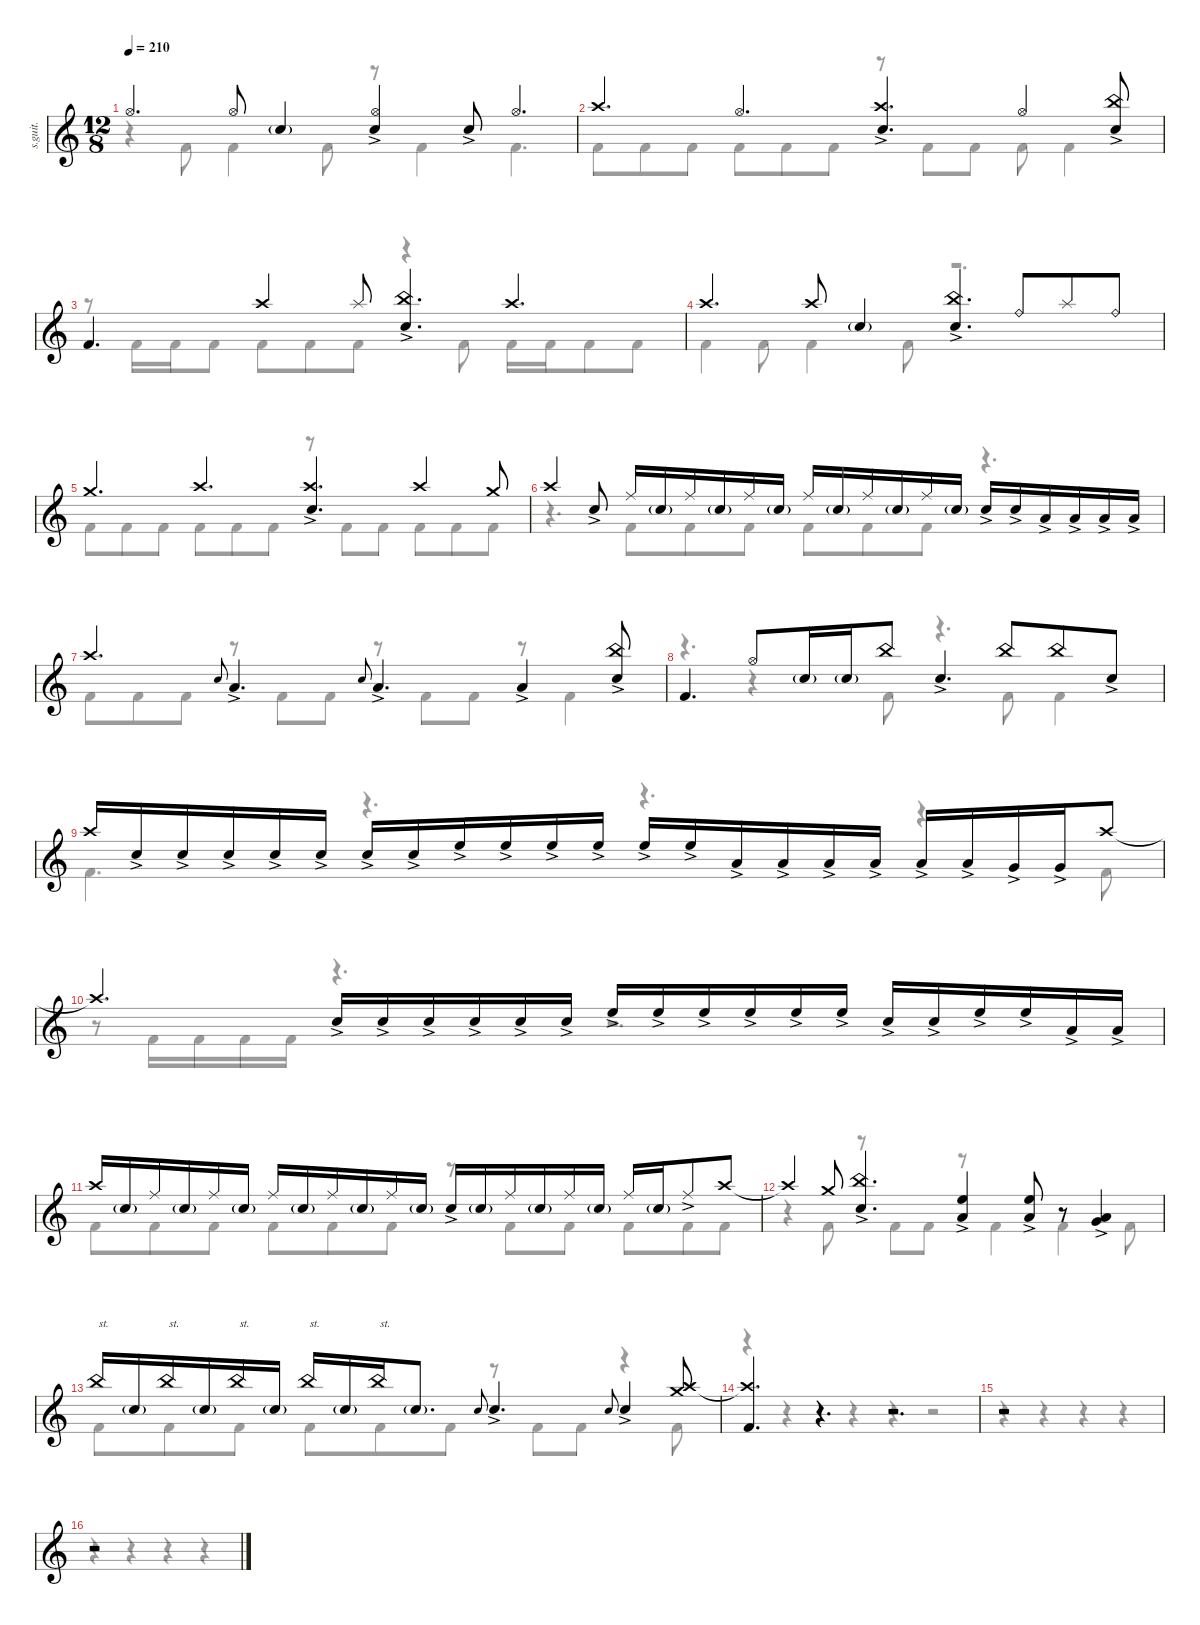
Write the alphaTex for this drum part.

\defaultSystemsLayout 4
\hideDynamics
\bracketExtendMode nobrackets
\track ("Percussion" "s.guit.") {instrument percussion}
\staff {score}
\articulation defaults
\voice
\ts (12 8)
\tempo 210
\clef g2
\ks c "Hi-Hat (open)".4{d lyrics (0 "") lyrics (1 "") lyrics (2 "") lyrics (3 "") lyrics (4 "") dy f} "Hi-Hat (open)".8{lyrics (0 "") lyrics (1 "") lyrics (2 "") lyrics (3 "") lyrics (4 "")} "Snare (hit) 2"{g}.4{lyrics (0 "") lyrics (1 "") lyrics (2 "") lyrics (3 "") lyrics (4 "") dy ff}
("Hi-Hat (open)" "Snare (hit) 2"{ac}).4{lyrics (0 "") lyrics (1 "") lyrics (2 "") lyrics (3 "") lyrics (4 "") dy f} "Snare (hit) 2"{ac}.8{lyrics (0 "") lyrics (1 "") lyrics (2 "") lyrics (3 "") lyrics (4 "") dy mf} "Hi-Hat (open)".4{d lyrics (0 "") lyrics (1 "") lyrics (2 "") lyrics (3 "") lyrics (4 "") dy f} |
"Crash high (hit)".4{d lyrics (0 "") lyrics (1 "") lyrics (2 "") lyrics (3 "") lyrics (4 "")} "Hi-Hat (open)".4{d lyrics (0 "") lyrics (1 "") lyrics (2 "") lyrics (3 "") lyrics (4 "")} ("Snare (hit) 2"{ac} "Crash high (hit)").4{d lyrics (0 "") lyrics (1 "") lyrics (2 "") lyrics (3 "") lyrics (4 "")} "Hi-Hat (open)".4{lyrics (0 "") lyrics (1 "") lyrics (2 "") lyrics (3 "") lyrics (4 "")} ("Snare (hit) 2"{ac} "China (hit)").8{lyrics (0 "") lyrics (1 "") lyrics (2 "") lyrics (3 "") lyrics (4 "")} |
"Kick (hit) 2".4{d lyrics (0 "") lyrics (1 "") lyrics (2 "") lyrics (3 "") lyrics (4 "")} "Crash high (hit)".4{lyrics (0 "") lyrics (1 "") lyrics (2 "") lyrics (3 "") lyrics (4 "")} "Splash (hit)".8{lyrics (0 "") lyrics (1 "") lyrics (2 "") lyrics (3 "") lyrics (4 "")} ("China (hit)" "Snare (hit) 2"{ac}).4{d lyrics (0 "") lyrics (1 "") lyrics (2 "") lyrics (3 "") lyrics (4 "")} "Crash high (hit)".4{d lyrics (0 "") lyrics (1 "") lyrics (2 "") lyrics (3 "") lyrics (4 "")} |
"Crash high (hit)".4{d lyrics (0 "") lyrics (1 "") lyrics (2 "") lyrics (3 "") lyrics (4 "")} "Crash high (hit)".8{lyrics (0 "") lyrics (1 "") lyrics (2 "") lyrics (3 "") lyrics (4 "")} "Snare (hit) 2"{g}.4{lyrics (0 "") lyrics (1 "") lyrics (2 "") lyrics (3 "") lyrics (4 "") dy ff} ("Snare (hit) 2"{ac} "China (hit)").4{d lyrics (0 "") lyrics (1 "") lyrics (2 "") lyrics (3 "") lyrics (4 "") dy f} "Ride (bell)".8{lyrics (0 "") lyrics (1 "") lyrics (2 "") lyrics (3 "") lyrics (4 "")} "Splash (hit)".8{lyrics (0 "") lyrics (1 "") lyrics (2 "") lyrics (3 "") lyrics (4 "")} "Ride (bell)".8{lyrics (0 "") lyrics (1 "") lyrics (2 "") lyrics (3 "") lyrics (4 "")} |
"Crash medium (hit)".4{d lyrics (0 "") lyrics (1 "") lyrics (2 "") lyrics (3 "") lyrics (4 "")} "Crash high (hit)".4{d lyrics (0 "") lyrics (1 "") lyrics (2 "") lyrics (3 "") lyrics (4 "")} ("Crash high (hit)" "Snare (hit) 2"{ac}).4{d lyrics (0 "") lyrics (1 "") lyrics (2 "") lyrics (3 "") lyrics (4 "")} "Crash high (hit)".4{lyrics (0 "") lyrics (1 "") lyrics (2 "") lyrics (3 "") lyrics (4 "")} "Crash medium (hit)".8{lyrics (0 "") lyrics (1 "") lyrics (2 "") lyrics (3 "") lyrics (4 "")} |
"Crash high (hit)".4{lyrics (0 "") lyrics (1 "") lyrics (2 "") lyrics (3 "") lyrics (4 "")} "Snare (hit) 2"{ac}.8{lyrics (0 "") lyrics (1 "") lyrics (2 "") lyrics (3 "") lyrics (4 "") dy mf} "Ride (middle)".16{lyrics (0 "") lyrics (1 "") lyrics (2 "") lyrics (3 "") lyrics (4 "") dy f} "Snare (hit) 2"{g}.16{lyrics (0 "") lyrics (1 "") lyrics (2 "") lyrics (3 "") lyrics (4 "") dy ff} "Ride (middle)".16{lyrics (0 "") lyrics (1 "") lyrics (2 "") lyrics (3 "") lyrics (4 "") dy f} "Snare (hit) 2"{g}.16{lyrics (0 "") lyrics (1 "") lyrics (2 "") lyrics (3 "") lyrics (4 "") dy ff} "Ride (middle)".16{lyrics (0 "") lyrics (1 "") lyrics (2 "") lyrics (3 "") lyrics (4 "") dy f} "Snare (hit) 2"{g}.16{lyrics (0 "") lyrics (1 "") lyrics (2 "") lyrics (3 "") lyrics (4 "") dy ff} "Ride (middle)".16{lyrics (0 "") lyrics (1 "") lyrics (2 "") lyrics (3 "") lyrics (4 "") dy f} "Snare (hit) 2"{g}.16{lyrics (0 "") lyrics (1 "") lyrics (2 "") lyrics (3 "") lyrics (4 "") dy ff} "Ride (middle)".16{lyrics (0 "") lyrics (1 "") lyrics (2 "") lyrics (3 "") lyrics (4 "") dy f} "Snare (hit) 2"{g}.16{lyrics (0 "") lyrics (1 "") lyrics (2 "") lyrics (3 "") lyrics (4 "") dy ff} "Ride (middle)".16{lyrics (0 "") lyrics (1 "") lyrics (2 "") lyrics (3 "") lyrics (4 "") dy f} "Snare (hit) 2"{g}.16{lyrics (0 "") lyrics (1 "") lyrics (2 "") lyrics (3 "") lyrics (4 "") dy ff} "Snare (hit) 2"{ac}.16{lyrics (0 "") lyrics (1 "") lyrics (2 "") lyrics (3 "") lyrics (4 "") dy mf} "Snare (hit) 2"{ac}.16{lyrics (0 "") lyrics (1 "") lyrics (2 "") lyrics (3 "") lyrics (4 "")} "Low Tom (hit)"{ac}.16{lyrics (0 "") lyrics (1 "") lyrics (2 "") lyrics (3 "") lyrics (4 "")} "Low Tom (hit)"{ac}.16{lyrics (0 "") lyrics (1 "") lyrics (2 "") lyrics (3 "") lyrics (4 "")} "Low Tom (hit)"{ac}.16{lyrics (0 "") lyrics (1 "") lyrics (2 "") lyrics (3 "") lyrics (4 "")} "Low Tom (hit)"{ac}.16{lyrics (0 "") lyrics (1 "") lyrics (2 "") lyrics (3 "") lyrics (4 "")} |
"Crash high (hit)".4{d lyrics (0 "") lyrics (1 "") lyrics (2 "") lyrics (3 "") lyrics (4 "") dy f} "Snare (hit) 2".8{lyrics (0 "") lyrics (1 "") lyrics (2 "") lyrics (3 "") lyrics (4 "") gr onbeat dy mf} "Low Tom (hit)"{ac}.4{d lyrics (0 "") lyrics (1 "") lyrics (2 "") lyrics (3 "") lyrics (4 "")} "Snare (hit) 2".8{lyrics (0 "") lyrics (1 "") lyrics (2 "") lyrics (3 "") lyrics (4 "") gr onbeat} "Low Tom (hit)"{ac}.4{d lyrics (0 "") lyrics (1 "") lyrics (2 "") lyrics (3 "") lyrics (4 "")} "Low Tom (hit)"{ac}.4{lyrics (0 "") lyrics (1 "") lyrics (2 "") lyrics (3 "") lyrics (4 "")} ("Snare (hit) 2"{ac} "China (hit)").8{lyrics (0 "") lyrics (1 "") lyrics (2 "") lyrics (3 "") lyrics (4 "") dy f} |
"Kick (hit) 2".4{d lyrics (0 "") lyrics (1 "") lyrics (2 "") lyrics (3 "") lyrics (4 "")} "Hi-Hat (open)".8{lyrics (0 "") lyrics (1 "") lyrics (2 "") lyrics (3 "") lyrics (4 "")} "Snare (hit) 2"{g}.16{lyrics (0 "") lyrics (1 "") lyrics (2 "") lyrics (3 "") lyrics (4 "") dy ff} "Snare (hit) 2"{g}.16{lyrics (0 "") lyrics (1 "") lyrics (2 "") lyrics (3 "") lyrics (4 "")} "China (hit)".8{lyrics (0 "") lyrics (1 "") lyrics (2 "") lyrics (3 "") lyrics (4 "") dy f} "Snare (hit) 2"{ac}.4{d lyrics (0 "") lyrics (1 "") lyrics (2 "") lyrics (3 "") lyrics (4 "") dy mf} "China (hit)".8{lyrics (0 "") lyrics (1 "") lyrics (2 "") lyrics (3 "") lyrics (4 "") dy f} "China (hit)".8{lyrics (0 "") lyrics (1 "") lyrics (2 "") lyrics (3 "") lyrics (4 "")} "Snare (hit) 2"{ac}.8{lyrics (0 "") lyrics (1 "") lyrics (2 "") lyrics (3 "") lyrics (4 "") dy mf} |
"Crash high (hit)".16{lyrics (0 "") lyrics (1 "") lyrics (2 "") lyrics (3 "") lyrics (4 "") dy f} "Snare (hit) 2"{ac}.16{lyrics (0 "") lyrics (1 "") lyrics (2 "") lyrics (3 "") lyrics (4 "") dy mf} "Snare (hit) 2"{ac}.16{lyrics (0 "") lyrics (1 "") lyrics (2 "") lyrics (3 "") lyrics (4 "")} "Snare (hit) 2"{ac}.16{lyrics (0 "") lyrics (1 "") lyrics (2 "") lyrics (3 "") lyrics (4 "")} "Snare (hit) 2"{ac}.16{lyrics (0 "") lyrics (1 "") lyrics (2 "") lyrics (3 "") lyrics (4 "")} "Snare (hit) 2"{ac}.16{lyrics (0 "") lyrics (1 "") lyrics (2 "") lyrics (3 "") lyrics (4 "")} "Snare (hit) 2"{ac}.16{lyrics (0 "") lyrics (1 "") lyrics (2 "") lyrics (3 "") lyrics (4 "")} "Snare (hit) 2"{ac}.16{lyrics (0 "") lyrics (1 "") lyrics (2 "") lyrics (3 "") lyrics (4 "")} "High Floor Tom (hit)"{ac}.16{lyrics (0 "") lyrics (1 "") lyrics (2 "") lyrics (3 "") lyrics (4 "")} "High Floor Tom (hit)"{ac}.16{lyrics (0 "") lyrics (1 "") lyrics (2 "") lyrics (3 "") lyrics (4 "")} "High Floor Tom (hit)"{ac}.16{lyrics (0 "") lyrics (1 "") lyrics (2 "") lyrics (3 "") lyrics (4 "")} "High Floor Tom (hit)"{ac}.16{lyrics (0 "") lyrics (1 "") lyrics (2 "") lyrics (3 "") lyrics (4 "")} "High Floor Tom (hit)"{ac}.16{lyrics (0 "") lyrics (1 "") lyrics (2 "") lyrics (3 "") lyrics (4 "")} "High Floor Tom (hit)"{ac}.16{lyrics (0 "") lyrics (1 "") lyrics (2 "") lyrics (3 "") lyrics (4 "")} "Low Tom (hit)"{ac}.16{lyrics (0 "") lyrics (1 "") lyrics (2 "") lyrics (3 "") lyrics (4 "")} "Low Tom (hit)"{ac}.16{lyrics (0 "") lyrics (1 "") lyrics (2 "") lyrics (3 "") lyrics (4 "")} "Low Tom (hit)"{ac}.16{lyrics (0 "") lyrics (1 "") lyrics (2 "") lyrics (3 "") lyrics (4 "")} "Low Tom (hit)"{ac}.16{lyrics (0 "") lyrics (1 "") lyrics (2 "") lyrics (3 "") lyrics (4 "")} "Low Tom (hit)"{ac}.16{lyrics (0 "") lyrics (1 "") lyrics (2 "") lyrics (3 "") lyrics (4 "")} "Low Tom (hit)"{ac}.16{lyrics (0 "") lyrics (1 "") lyrics (2 "") lyrics (3 "") lyrics (4 "")} "Very Low Tom (hit)"{ac}.16{lyrics (0 "") lyrics (1 "") lyrics (2 "") lyrics (3 "") lyrics (4 "")} "Very Low Tom (hit)"{ac}.16{lyrics (0 "") lyrics (1 "") lyrics (2 "") lyrics (3 "") lyrics (4 "")} "Crash high (hit)".8{lyrics (0 "") lyrics (1 "") lyrics (2 "") lyrics (3 "") lyrics (4 "") dy f} |
"Crash high (hit)"{t}.4{d lyrics (0 "") lyrics (1 "") lyrics (2 "") lyrics (3 "") lyrics (4 "")} "Snare (hit) 2"{ac}.16{lyrics (0 "") lyrics (1 "") lyrics (2 "") lyrics (3 "") lyrics (4 "") dy mf} "Snare (hit) 2"{ac}.16{lyrics (0 "") lyrics (1 "") lyrics (2 "") lyrics (3 "") lyrics (4 "")} "Snare (hit) 2"{ac}.16{lyrics (0 "") lyrics (1 "") lyrics (2 "") lyrics (3 "") lyrics (4 "")} "Snare (hit) 2"{ac}.16{lyrics (0 "") lyrics (1 "") lyrics (2 "") lyrics (3 "") lyrics (4 "")} "Snare (hit) 2"{ac}.16{lyrics (0 "") lyrics (1 "") lyrics (2 "") lyrics (3 "") lyrics (4 "")} "Snare (hit) 2"{ac}.16{lyrics (0 "") lyrics (1 "") lyrics (2 "") lyrics (3 "") lyrics (4 "")} "High Floor Tom (hit)"{ac}.16{lyrics (0 "") lyrics (1 "") lyrics (2 "") lyrics (3 "") lyrics (4 "")} "High Floor Tom (hit)"{ac}.16{lyrics (0 "") lyrics (1 "") lyrics (2 "") lyrics (3 "") lyrics (4 "")} "High Floor Tom (hit)"{ac}.16{lyrics (0 "") lyrics (1 "") lyrics (2 "") lyrics (3 "") lyrics (4 "")} "High Floor Tom (hit)"{ac}.16{lyrics (0 "") lyrics (1 "") lyrics (2 "") lyrics (3 "") lyrics (4 "")} "High Floor Tom (hit)"{ac}.16{lyrics (0 "") lyrics (1 "") lyrics (2 "") lyrics (3 "") lyrics (4 "")} "High Floor Tom (hit)"{ac}.16{lyrics (0 "") lyrics (1 "") lyrics (2 "") lyrics (3 "") lyrics (4 "")} "Snare (hit) 2"{ac}.16{lyrics (0 "") lyrics (1 "") lyrics (2 "") lyrics (3 "") lyrics (4 "")} "Snare (hit) 2"{ac}.16{lyrics (0 "") lyrics (1 "") lyrics (2 "") lyrics (3 "") lyrics (4 "")} "High Floor Tom (hit)"{ac}.16{lyrics (0 "") lyrics (1 "") lyrics (2 "") lyrics (3 "") lyrics (4 "")} "High Floor Tom (hit)"{ac}.16{lyrics (0 "") lyrics (1 "") lyrics (2 "") lyrics (3 "") lyrics (4 "")} "Low Tom (hit)"{ac}.16{lyrics (0 "") lyrics (1 "") lyrics (2 "") lyrics (3 "") lyrics (4 "")} "Low Tom (hit)"{ac}.16{lyrics (0 "") lyrics (1 "") lyrics (2 "") lyrics (3 "") lyrics (4 "")} |
"Crash high (hit)".16{lyrics (0 "") lyrics (1 "") lyrics (2 "") lyrics (3 "") lyrics (4 "") dy f} "Snare (hit) 2"{g}.16{lyrics (0 "") lyrics (1 "") lyrics (2 "") lyrics (3 "") lyrics (4 "") dy ff} "Ride (middle)".16{lyrics (0 "") lyrics (1 "") lyrics (2 "") lyrics (3 "") lyrics (4 "") dy f} "Snare (hit) 2"{g}.16{lyrics (0 "") lyrics (1 "") lyrics (2 "") lyrics (3 "") lyrics (4 "") dy ff} "Ride (middle)".16{lyrics (0 "") lyrics (1 "") lyrics (2 "") lyrics (3 "") lyrics (4 "") dy f} "Snare (hit) 2"{g}.16{lyrics (0 "") lyrics (1 "") lyrics (2 "") lyrics (3 "") lyrics (4 "") dy ff} "Ride (middle)".16{lyrics (0 "") lyrics (1 "") lyrics (2 "") lyrics (3 "") lyrics (4 "") dy f} "Snare (hit) 2"{g}.16{lyrics (0 "") lyrics (1 "") lyrics (2 "") lyrics (3 "") lyrics (4 "") dy ff} "Ride (middle)".16{lyrics (0 "") lyrics (1 "") lyrics (2 "") lyrics (3 "") lyrics (4 "") dy f} "Snare (hit) 2"{g}.16{lyrics (0 "") lyrics (1 "") lyrics (2 "") lyrics (3 "") lyrics (4 "") dy ff} "Ride (middle)".16{lyrics (0 "") lyrics (1 "") lyrics (2 "") lyrics (3 "") lyrics (4 "") dy f} "Snare (hit) 2"{g}.16{lyrics (0 "") lyrics (1 "") lyrics (2 "") lyrics (3 "") lyrics (4 "") dy ff} "Snare (hit) 2"{ac}.16{lyrics (0 "") lyrics (1 "") lyrics (2 "") lyrics (3 "") lyrics (4 "") dy mf} "Snare (hit) 2"{g}.16{lyrics (0 "") lyrics (1 "") lyrics (2 "") lyrics (3 "") lyrics (4 "") dy ff} "Ride (middle)".16{lyrics (0 "") lyrics (1 "") lyrics (2 "") lyrics (3 "") lyrics (4 "") dy f} "Snare (hit) 2"{g}.16{lyrics (0 "") lyrics (1 "") lyrics (2 "") lyrics (3 "") lyrics (4 "") dy ff} "Ride (middle)".16{lyrics (0 "") lyrics (1 "") lyrics (2 "") lyrics (3 "") lyrics (4 "") dy f} "Snare (hit) 2"{g}.16{lyrics (0 "") lyrics (1 "") lyrics (2 "") lyrics (3 "") lyrics (4 "") dy ff} "Ride (middle)".16{lyrics (0 "") lyrics (1 "") lyrics (2 "") lyrics (3 "") lyrics (4 "") dy f} "Snare (hit) 2"{g}.16{lyrics (0 "") lyrics (1 "") lyrics (2 "") lyrics (3 "") lyrics (4 "") dy ff} "Ride (middle)"{ac}.8{lyrics (0 "") lyrics (1 "") lyrics (2 "") lyrics (3 "") lyrics (4 "") dy mf} "Crash high (hit)".8{lyrics (0 "") lyrics (1 "") lyrics (2 "") lyrics (3 "") lyrics (4 "") dy f} |
"Crash high (hit)"{t}.4{lyrics (0 "") lyrics (1 "") lyrics (2 "") lyrics (3 "") lyrics (4 "")} "Crash medium (hit)".8{lyrics (0 "") lyrics (1 "") lyrics (2 "") lyrics (3 "") lyrics (4 "")} ("China (hit)" "Snare (hit) 2"{ac}).4{d lyrics (0 "") lyrics (1 "") lyrics (2 "") lyrics (3 "") lyrics (4 "")} ("Low Tom (hit)"{ac} "High Floor Tom (hit)"{ac}).4{lyrics (0 "") lyrics (1 "") lyrics (2 "") lyrics (3 "") lyrics (4 "") dy mf} ("High Floor Tom (hit)"{ac} "Low Tom (hit)"{ac}).8{lyrics (0 "") lyrics (1 "") lyrics (2 "") lyrics (3 "") lyrics (4 "")} r.8 ("Low Tom (hit)"{ac} "Very Low Tom (hit)"{ac}).4{lyrics (0 "") lyrics (1 "") lyrics (2 "") lyrics (3 "") lyrics (4 "")} |
"China (hit)".16{txt "st." lyrics (0 "") lyrics (1 "") lyrics (2 "") lyrics (3 "") lyrics (4 "") dy f} "Snare (hit) 2"{g}.16{lyrics (0 "") lyrics (1 "") lyrics (2 "") lyrics (3 "") lyrics (4 "") dy ff} "China (hit)".16{txt "st." lyrics (0 "") lyrics (1 "") lyrics (2 "") lyrics (3 "") lyrics (4 "") dy f} "Snare (hit) 2"{g}.16{lyrics (0 "") lyrics (1 "") lyrics (2 "") lyrics (3 "") lyrics (4 "") dy ff} "China (hit)".16{txt "st." lyrics (0 "") lyrics (1 "") lyrics (2 "") lyrics (3 "") lyrics (4 "") dy f} "Snare (hit) 2"{g}.16{lyrics (0 "") lyrics (1 "") lyrics (2 "") lyrics (3 "") lyrics (4 "") dy ff} "China (hit)".16{txt "st." lyrics (0 "") lyrics (1 "") lyrics (2 "") lyrics (3 "") lyrics (4 "") dy f} "Snare (hit) 2"{g}.16{lyrics (0 "") lyrics (1 "") lyrics (2 "") lyrics (3 "") lyrics (4 "") dy ff} "China (hit)".16{txt "st." lyrics (0 "") lyrics (1 "") lyrics (2 "") lyrics (3 "") lyrics (4 "") dy f} "Snare (hit) 2"{g}.8{d lyrics (0 "") lyrics (1 "") lyrics (2 "") lyrics (3 "") lyrics (4 "") dy ff} "Snare (hit) 2".8{lyrics (0 "") lyrics (1 "") lyrics (2 "") lyrics (3 "") lyrics (4 "") gr onbeat dy mf} "Snare (hit) 2"{ac}.4{d lyrics (0 "") lyrics (1 "") lyrics (2 "") lyrics (3 "") lyrics (4 "")} "Snare (hit) 2".8{lyrics (0 "") lyrics (1 "") lyrics (2 "") lyrics (3 "") lyrics (4 "") gr onbeat} "Snare (hit) 2"{ac}.4{lyrics (0 "") lyrics (1 "") lyrics (2 "") lyrics (3 "") lyrics (4 "")} ("Crash high (hit)" "Crash medium (hit)").8{lyrics (0 "") lyrics (1 "") lyrics (2 "") lyrics (3 "") lyrics (4 "") dy f} |
("Crash high (hit)"{t} "Kick (hit) 2").4{d lyrics (0 "") lyrics (1 "") lyrics (2 "") lyrics (3 "") lyrics (4 "")} r.4{d} r.2{d} |
r.2 |
r.2
\voice
\clef g2
\ottava regular
\simile none
\ks c
r.4{dy f} "Kick (hit) 2".8{lyrics (0 "") lyrics (1 "") lyrics (2 "") lyrics (3 "") lyrics (4 "")} "Kick (hit) 2".4{lyrics (0 "") lyrics (1 "") lyrics (2 "") lyrics (3 "") lyrics (4 "")} "Kick (hit) 2".8{lyrics (0 "") lyrics (1 "") lyrics (2 "") lyrics (3 "") lyrics (4 "")} r.8 "Kick (hit) 2".4{lyrics (0 "") lyrics (1 "") lyrics (2 "") lyrics (3 "") lyrics (4 "")} "Kick (hit) 2".4{d lyrics (0 "") lyrics (1 "") lyrics (2 "") lyrics (3 "") lyrics (4 "")} |
"Kick (hit) 2".8{lyrics (0 "") lyrics (1 "") lyrics (2 "") lyrics (3 "") lyrics (4 "")} "Kick (hit) 2".8{lyrics (0 "") lyrics (1 "") lyrics (2 "") lyrics (3 "") lyrics (4 "")} "Kick (hit) 2".8{lyrics (0 "") lyrics (1 "") lyrics (2 "") lyrics (3 "") lyrics (4 "")} "Kick (hit) 2".8{lyrics (0 "") lyrics (1 "") lyrics (2 "") lyrics (3 "") lyrics (4 "")} "Kick (hit) 2".8{lyrics (0 "") lyrics (1 "") lyrics (2 "") lyrics (3 "") lyrics (4 "")} "Kick (hit) 2".8{lyrics (0 "") lyrics (1 "") lyrics (2 "") lyrics (3 "") lyrics (4 "")} r.8 "Kick (hit) 2".8{lyrics (0 "") lyrics (1 "") lyrics (2 "") lyrics (3 "") lyrics (4 "")} "Kick (hit) 2".8{lyrics (0 "") lyrics (1 "") lyrics (2 "") lyrics (3 "") lyrics (4 "")} "Kick (hit) 2".8{lyrics (0 "") lyrics (1 "") lyrics (2 "") lyrics (3 "") lyrics (4 "")} "Kick (hit) 2".4{lyrics (0 "") lyrics (1 "") lyrics (2 "") lyrics (3 "") lyrics (4 "")} |
r.8 "Kick (hit) 2".16{lyrics (0 "") lyrics (1 "") lyrics (2 "") lyrics (3 "") lyrics (4 "")} "Kick (hit) 2".16{lyrics (0 "") lyrics (1 "") lyrics (2 "") lyrics (3 "") lyrics (4 "")} "Kick (hit) 2".8{lyrics (0 "") lyrics (1 "") lyrics (2 "") lyrics (3 "") lyrics (4 "")} "Kick (hit) 2".8{lyrics (0 "") lyrics (1 "") lyrics (2 "") lyrics (3 "") lyrics (4 "")} "Kick (hit) 2".8{lyrics (0 "") lyrics (1 "") lyrics (2 "") lyrics (3 "") lyrics (4 "")} "Kick (hit) 2".8{lyrics (0 "") lyrics (1 "") lyrics (2 "") lyrics (3 "") lyrics (4 "")} r.4 "Kick (hit) 2".8{lyrics (0 "") lyrics (1 "") lyrics (2 "") lyrics (3 "") lyrics (4 "")} "Kick (hit) 2".16{lyrics (0 "") lyrics (1 "") lyrics (2 "") lyrics (3 "") lyrics (4 "")} "Kick (hit) 2".16{lyrics (0 "") lyrics (1 "") lyrics (2 "") lyrics (3 "") lyrics (4 "")} "Kick (hit) 2".8{lyrics (0 "") lyrics (1 "") lyrics (2 "") lyrics (3 "") lyrics (4 "")} "Kick (hit) 2".8{lyrics (0 "") lyrics (1 "") lyrics (2 "") lyrics (3 "") lyrics (4 "")} |
"Kick (hit) 2".4{lyrics (0 "") lyrics (1 "") lyrics (2 "") lyrics (3 "") lyrics (4 "")} "Kick (hit) 2".8{lyrics (0 "") lyrics (1 "") lyrics (2 "") lyrics (3 "") lyrics (4 "")} "Kick (hit) 2".4{lyrics (0 "") lyrics (1 "") lyrics (2 "") lyrics (3 "") lyrics (4 "")} "Kick (hit) 2".8{lyrics (0 "") lyrics (1 "") lyrics (2 "") lyrics (3 "") lyrics (4 "")} r.2{d} |
"Kick (hit) 2".8{lyrics (0 "") lyrics (1 "") lyrics (2 "") lyrics (3 "") lyrics (4 "")} "Kick (hit) 2".8{lyrics (0 "") lyrics (1 "") lyrics (2 "") lyrics (3 "") lyrics (4 "")} "Kick (hit) 2".8{lyrics (0 "") lyrics (1 "") lyrics (2 "") lyrics (3 "") lyrics (4 "")} "Kick (hit) 2".8{lyrics (0 "") lyrics (1 "") lyrics (2 "") lyrics (3 "") lyrics (4 "")} "Kick (hit) 2".8{lyrics (0 "") lyrics (1 "") lyrics (2 "") lyrics (3 "") lyrics (4 "")} "Kick (hit) 2".8{lyrics (0 "") lyrics (1 "") lyrics (2 "") lyrics (3 "") lyrics (4 "")} r.8 "Kick (hit) 2".8{lyrics (0 "") lyrics (1 "") lyrics (2 "") lyrics (3 "") lyrics (4 "")} "Kick (hit) 2".8{lyrics (0 "") lyrics (1 "") lyrics (2 "") lyrics (3 "") lyrics (4 "")} "Kick (hit) 2".8{lyrics (0 "") lyrics (1 "") lyrics (2 "") lyrics (3 "") lyrics (4 "")} "Kick (hit) 2".8{lyrics (0 "") lyrics (1 "") lyrics (2 "") lyrics (3 "") lyrics (4 "")} "Kick (hit) 2".8{lyrics (0 "") lyrics (1 "") lyrics (2 "") lyrics (3 "") lyrics (4 "")} |
r.4{d} "Kick (hit) 2".8{lyrics (0 "") lyrics (1 "") lyrics (2 "") lyrics (3 "") lyrics (4 "")} "Kick (hit) 2".8{lyrics (0 "") lyrics (1 "") lyrics (2 "") lyrics (3 "") lyrics (4 "")} "Kick (hit) 2".8{lyrics (0 "") lyrics (1 "") lyrics (2 "") lyrics (3 "") lyrics (4 "")} "Kick (hit) 2".8{lyrics (0 "") lyrics (1 "") lyrics (2 "") lyrics (3 "") lyrics (4 "")} "Kick (hit) 2".8{lyrics (0 "") lyrics (1 "") lyrics (2 "") lyrics (3 "") lyrics (4 "")} "Kick (hit) 2".8{lyrics (0 "") lyrics (1 "") lyrics (2 "") lyrics (3 "") lyrics (4 "")} r.4{d} |
"Kick (hit) 2".8{lyrics (0 "") lyrics (1 "") lyrics (2 "") lyrics (3 "") lyrics (4 "")} "Kick (hit) 2".8{lyrics (0 "") lyrics (1 "") lyrics (2 "") lyrics (3 "") lyrics (4 "")} "Kick (hit) 2".8{lyrics (0 "") lyrics (1 "") lyrics (2 "") lyrics (3 "") lyrics (4 "")} r.8 "Kick (hit) 2".8{lyrics (0 "") lyrics (1 "") lyrics (2 "") lyrics (3 "") lyrics (4 "")} "Kick (hit) 2".8{lyrics (0 "") lyrics (1 "") lyrics (2 "") lyrics (3 "") lyrics (4 "")} r.8 "Kick (hit) 2".8{lyrics (0 "") lyrics (1 "") lyrics (2 "") lyrics (3 "") lyrics (4 "")} "Kick (hit) 2".8{lyrics (0 "") lyrics (1 "") lyrics (2 "") lyrics (3 "") lyrics (4 "")} r.8 "Kick (hit) 2".4{lyrics (0 "") lyrics (1 "") lyrics (2 "") lyrics (3 "") lyrics (4 "")} |
r.4{d} r.4 "Kick (hit) 2".8{lyrics (0 "") lyrics (1 "") lyrics (2 "") lyrics (3 "") lyrics (4 "")} r.4{d} "Kick (hit) 2".8{lyrics (0 "") lyrics (1 "") lyrics (2 "") lyrics (3 "") lyrics (4 "")} "Kick (hit) 2".4{lyrics (0 "") lyrics (1 "") lyrics (2 "") lyrics (3 "") lyrics (4 "")} |
"Kick (hit) 2".4{d lyrics (0 "") lyrics (1 "") lyrics (2 "") lyrics (3 "") lyrics (4 "")} r.4{d} r.4{d} r.4 "Kick (hit) 2".8{lyrics (0 "") lyrics (1 "") lyrics (2 "") lyrics (3 "") lyrics (4 "")} |
r.8 "Kick (hit) 2".16{lyrics (0 "") lyrics (1 "") lyrics (2 "") lyrics (3 "") lyrics (4 "")} "Kick (hit) 2".16{lyrics (0 "") lyrics (1 "") lyrics (2 "") lyrics (3 "") lyrics (4 "")} "Kick (hit) 2".16{lyrics (0 "") lyrics (1 "") lyrics (2 "") lyrics (3 "") lyrics (4 "")} "Kick (hit) 2".16{lyrics (0 "") lyrics (1 "") lyrics (2 "") lyrics (3 "") lyrics (4 "")} r.4{d} r.2{d} |
"Kick (hit) 2".8{lyrics (0 "") lyrics (1 "") lyrics (2 "") lyrics (3 "") lyrics (4 "")} "Kick (hit) 2".8{lyrics (0 "") lyrics (1 "") lyrics (2 "") lyrics (3 "") lyrics (4 "")} "Kick (hit) 2".8{lyrics (0 "") lyrics (1 "") lyrics (2 "") lyrics (3 "") lyrics (4 "")} "Kick (hit) 2".8{lyrics (0 "") lyrics (1 "") lyrics (2 "") lyrics (3 "") lyrics (4 "")} "Kick (hit) 2".8{lyrics (0 "") lyrics (1 "") lyrics (2 "") lyrics (3 "") lyrics (4 "")} "Kick (hit) 2".8{lyrics (0 "") lyrics (1 "") lyrics (2 "") lyrics (3 "") lyrics (4 "")} r.8 "Kick (hit) 2".8{lyrics (0 "") lyrics (1 "") lyrics (2 "") lyrics (3 "") lyrics (4 "")} "Kick (hit) 2".8{lyrics (0 "") lyrics (1 "") lyrics (2 "") lyrics (3 "") lyrics (4 "")} "Kick (hit) 2".8{lyrics (0 "") lyrics (1 "") lyrics (2 "") lyrics (3 "") lyrics (4 "")} "Kick (hit) 2".8{lyrics (0 "") lyrics (1 "") lyrics (2 "") lyrics (3 "") lyrics (4 "")} "Kick (hit) 2".8{lyrics (0 "") lyrics (1 "") lyrics (2 "") lyrics (3 "") lyrics (4 "")} |
r.4 "Kick (hit) 2".8{lyrics (0 "") lyrics (1 "") lyrics (2 "") lyrics (3 "") lyrics (4 "")} r.8 "Kick (hit) 2".8{lyrics (0 "") lyrics (1 "") lyrics (2 "") lyrics (3 "") lyrics (4 "")} "Kick (hit) 2".8{lyrics (0 "") lyrics (1 "") lyrics (2 "") lyrics (3 "") lyrics (4 "")} r.8 "Kick (hit) 2".4{lyrics (0 "") lyrics (1 "") lyrics (2 "") lyrics (3 "") lyrics (4 "")} "Kick (hit) 2".4{lyrics (0 "") lyrics (1 "") lyrics (2 "") lyrics (3 "") lyrics (4 "")} "Kick (hit) 2".8{lyrics (0 "") lyrics (1 "") lyrics (2 "") lyrics (3 "") lyrics (4 "")} |
"Kick (hit) 2".8{lyrics (0 "") lyrics (1 "") lyrics (2 "") lyrics (3 "") lyrics (4 "")} "Kick (hit) 2".8{lyrics (0 "") lyrics (1 "") lyrics (2 "") lyrics (3 "") lyrics (4 "")} "Kick (hit) 2".8{lyrics (0 "") lyrics (1 "") lyrics (2 "") lyrics (3 "") lyrics (4 "")} "Kick (hit) 2".8{lyrics (0 "") lyrics (1 "") lyrics (2 "") lyrics (3 "") lyrics (4 "")} "Kick (hit) 2".8{lyrics (0 "") lyrics (1 "") lyrics (2 "") lyrics (3 "") lyrics (4 "")} "Kick (hit) 2".8{lyrics (0 "") lyrics (1 "") lyrics (2 "") lyrics (3 "") lyrics (4 "")} r.8 "Kick (hit) 2".8{lyrics (0 "") lyrics (1 "") lyrics (2 "") lyrics (3 "") lyrics (4 "")} "Kick (hit) 2".8{lyrics (0 "") lyrics (1 "") lyrics (2 "") lyrics (3 "") lyrics (4 "")} r.4 "Kick (hit) 2".8{lyrics (0 "") lyrics (1 "") lyrics (2 "") lyrics (3 "") lyrics (4 "")} |
r.4 r.4 r.4 r.4 r.2 |
r.4 r.4 r.4 r.4 |
r.4 r.4 r.4 r.4
